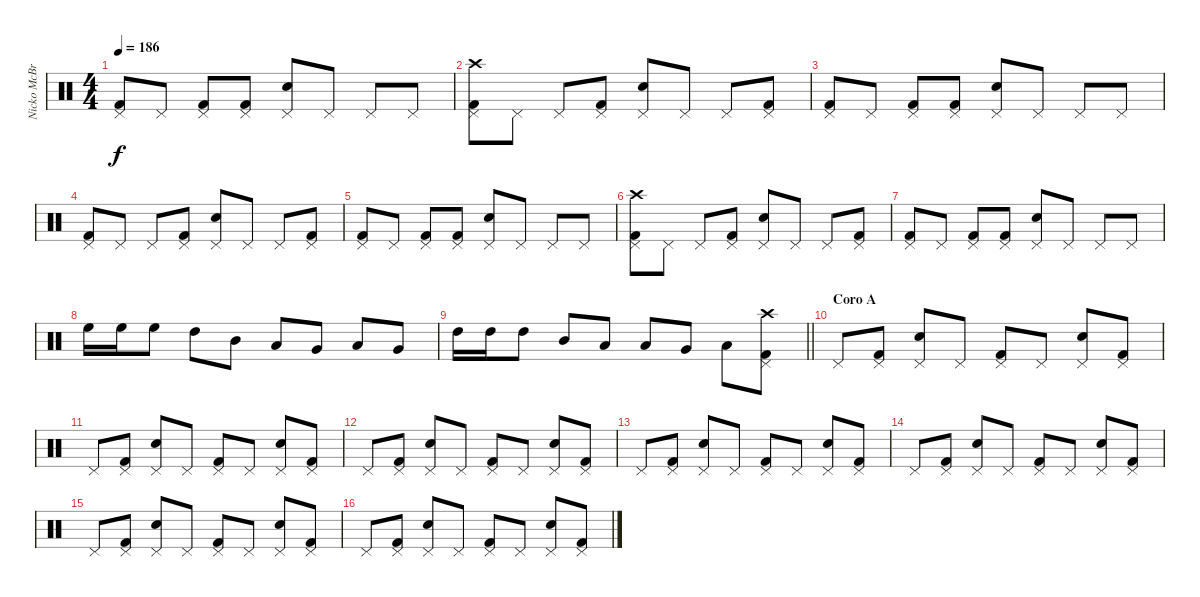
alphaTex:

\track ("Nicko McBrain" "Nicko McBr") {instrument percussion}
\staff {score}
\articulation defaults
\ts (4 4)
\tempo 186
\clef neutral
\ks c
("Kick (hit) 2" "Pedal Hi-Hat (hit)").8{dy f} "Pedal Hi-Hat (hit)".8 ("Kick (hit) 2" "Pedal Hi-Hat (hit)").8 ("Kick (hit) 2" "Pedal Hi-Hat (hit)").8 ("Snare (hit) 2" "Pedal Hi-Hat (hit)").8 "Pedal Hi-Hat (hit)".8 "Pedal Hi-Hat (hit)".8 "Pedal Hi-Hat (hit)".8 |
("Kick (hit) 2" "Pedal Hi-Hat (hit)" "Crash high (hit)").8 "Pedal Hi-Hat (hit)".8 "Pedal Hi-Hat (hit)".8 ("Kick (hit) 2" "Pedal Hi-Hat (hit)").8 ("Snare (hit) 2" "Pedal Hi-Hat (hit)").8 "Pedal Hi-Hat (hit)".8 "Pedal Hi-Hat (hit)".8 ("Kick (hit) 2" "Pedal Hi-Hat (hit)").8 |
("Kick (hit) 2" "Pedal Hi-Hat (hit)").8 "Pedal Hi-Hat (hit)".8 ("Kick (hit) 2" "Pedal Hi-Hat (hit)").8 ("Kick (hit) 2" "Pedal Hi-Hat (hit)").8 ("Snare (hit) 2" "Pedal Hi-Hat (hit)").8 "Pedal Hi-Hat (hit)".8 "Pedal Hi-Hat (hit)".8 "Pedal Hi-Hat (hit)".8 |
("Kick (hit) 2" "Pedal Hi-Hat (hit)").8 "Pedal Hi-Hat (hit)".8 "Pedal Hi-Hat (hit)".8 ("Kick (hit) 2" "Pedal Hi-Hat (hit)").8 ("Snare (hit) 2" "Pedal Hi-Hat (hit)").8 "Pedal Hi-Hat (hit)".8 "Pedal Hi-Hat (hit)".8 ("Kick (hit) 2" "Pedal Hi-Hat (hit)").8 |
("Kick (hit) 2" "Pedal Hi-Hat (hit)").8 "Pedal Hi-Hat (hit)".8 ("Kick (hit) 2" "Pedal Hi-Hat (hit)").8 ("Kick (hit) 2" "Pedal Hi-Hat (hit)").8 ("Snare (hit) 2" "Pedal Hi-Hat (hit)").8 "Pedal Hi-Hat (hit)".8 "Pedal Hi-Hat (hit)".8 "Pedal Hi-Hat (hit)".8 |
("Kick (hit) 2" "Pedal Hi-Hat (hit)" "Crash high (hit)").8 "Pedal Hi-Hat (hit)".8 "Pedal Hi-Hat (hit)".8 ("Kick (hit) 2" "Pedal Hi-Hat (hit)").8 ("Snare (hit) 2" "Pedal Hi-Hat (hit)").8 "Pedal Hi-Hat (hit)".8 "Pedal Hi-Hat (hit)".8 ("Kick (hit) 2" "Pedal Hi-Hat (hit)").8 |
("Kick (hit) 2" "Pedal Hi-Hat (hit)").8 "Pedal Hi-Hat (hit)".8 ("Kick (hit) 2" "Pedal Hi-Hat (hit)").8 ("Kick (hit) 2" "Pedal Hi-Hat (hit)").8 ("Snare (hit) 2" "Pedal Hi-Hat (hit)").8 "Pedal Hi-Hat (hit)".8 "Pedal Hi-Hat (hit)".8 "Pedal Hi-Hat (hit)".8 |
"High Floor Tom (hit)".16 "High Floor Tom (hit)".16 "High Floor Tom (hit)".8 "High Tom (hit)".8 "Mid Tom (hit)".8 "Low Tom (hit)".8 "Very Low Tom (hit)".8 "Low Floor Tom (hit)".8 "Very Low Tom (hit)".8 |
\barLineRight lightlight "High Tom (hit)".16 "High Tom (hit)".16 "High Tom (hit)".8 "Mid Tom (hit)".8 "Low Tom (hit)".8 "Low Tom (hit)".8 "Very Low Tom (hit)".8 "Low Floor Tom (hit)".8
("Kick (hit) 2" "Pedal Hi-Hat (hit)" "Crash high (hit)").8 |
\section ("" "Coro A")
"Pedal Hi-Hat (hit)".8 ("Kick (hit) 2" "Pedal Hi-Hat (hit)").8 ("Snare (hit) 2" "Pedal Hi-Hat (hit)").8 "Pedal Hi-Hat (hit)".8 ("Kick (hit) 2" "Pedal Hi-Hat (hit)").8 "Pedal Hi-Hat (hit)".8 ("Snare (hit) 2" "Pedal Hi-Hat (hit)").8 ("Kick (hit) 2" "Pedal Hi-Hat (hit)").8 |
"Pedal Hi-Hat (hit)".8 ("Kick (hit) 2" "Pedal Hi-Hat (hit)").8 ("Snare (hit) 2" "Pedal Hi-Hat (hit)").8 "Pedal Hi-Hat (hit)".8 ("Kick (hit) 2" "Pedal Hi-Hat (hit)").8 "Pedal Hi-Hat (hit)".8 ("Snare (hit) 2" "Pedal Hi-Hat (hit)").8 ("Kick (hit) 2" "Pedal Hi-Hat (hit)").8 |
"Pedal Hi-Hat (hit)".8 ("Kick (hit) 2" "Pedal Hi-Hat (hit)").8 ("Snare (hit) 2" "Pedal Hi-Hat (hit)").8 "Pedal Hi-Hat (hit)".8 ("Kick (hit) 2" "Pedal Hi-Hat (hit)").8 "Pedal Hi-Hat (hit)".8 ("Snare (hit) 2" "Pedal Hi-Hat (hit)").8 ("Kick (hit) 2" "Pedal Hi-Hat (hit)").8 |
"Pedal Hi-Hat (hit)".8 ("Kick (hit) 2" "Pedal Hi-Hat (hit)").8 ("Snare (hit) 2" "Pedal Hi-Hat (hit)").8 "Pedal Hi-Hat (hit)".8 ("Kick (hit) 2" "Pedal Hi-Hat (hit)").8 "Pedal Hi-Hat (hit)".8 ("Snare (hit) 2" "Pedal Hi-Hat (hit)").8 ("Kick (hit) 2" "Pedal Hi-Hat (hit)").8 |
"Pedal Hi-Hat (hit)".8 ("Kick (hit) 2" "Pedal Hi-Hat (hit)").8 ("Snare (hit) 2" "Pedal Hi-Hat (hit)").8 "Pedal Hi-Hat (hit)".8 ("Kick (hit) 2" "Pedal Hi-Hat (hit)").8 "Pedal Hi-Hat (hit)".8 ("Snare (hit) 2" "Pedal Hi-Hat (hit)").8 ("Kick (hit) 2" "Pedal Hi-Hat (hit)").8 |
"Pedal Hi-Hat (hit)".8 ("Kick (hit) 2" "Pedal Hi-Hat (hit)").8 ("Snare (hit) 2" "Pedal Hi-Hat (hit)").8 "Pedal Hi-Hat (hit)".8 ("Kick (hit) 2" "Pedal Hi-Hat (hit)").8 "Pedal Hi-Hat (hit)".8 ("Snare (hit) 2" "Pedal Hi-Hat (hit)").8 ("Kick (hit) 2" "Pedal Hi-Hat (hit)").8 |
"Pedal Hi-Hat (hit)".8 ("Kick (hit) 2" "Pedal Hi-Hat (hit)").8 ("Snare (hit) 2" "Pedal Hi-Hat (hit)").8 "Pedal Hi-Hat (hit)".8 ("Kick (hit) 2" "Pedal Hi-Hat (hit)").8 "Pedal Hi-Hat (hit)".8 ("Snare (hit) 2" "Pedal Hi-Hat (hit)").8 ("Kick (hit) 2" "Pedal Hi-Hat (hit)").8
